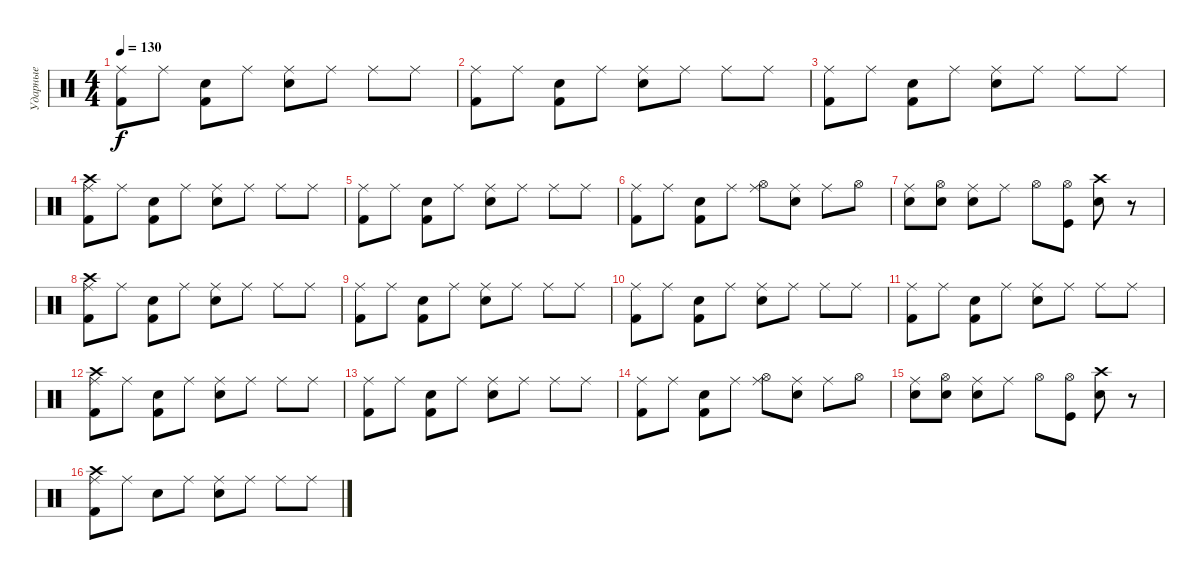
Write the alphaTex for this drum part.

\track ("Ударные" "Ударные") {instrument percussion}
\staff {score}
\articulation defaults
\ts (4 4)
\tempo 130
\clef neutral
\ks c
("Ride (middle)" "Kick (hit) 2").8{dy f} "Ride (middle)".8 ("Snare (hit)" "Kick (hit) 2").8 "Ride (middle)".8 ("Ride (middle)" "Electric Snare (hit)").8 "Ride (middle)".8 "Ride (middle)".8 "Ride (middle)".8 |
("Ride (middle)" "Kick (hit) 2").8 "Ride (middle)".8 ("Snare (hit)" "Kick (hit) 2").8 "Ride (middle)".8 ("Ride (middle)" "Electric Snare (hit)").8 "Ride (middle)".8 "Ride (middle)".8 "Ride (middle)".8 |
("Ride (middle)" "Kick (hit) 2").8 "Ride (middle)".8 ("Snare (hit)" "Kick (hit) 2").8 "Ride (middle)".8 ("Ride (middle)" "Electric Snare (hit)").8 "Ride (middle)".8 "Ride (middle)".8 "Ride (middle)".8 |
("Crash high (hit)" "Ride (middle)" "Kick (hit) 2").8 "Ride (middle)".8 ("Snare (hit)" "Kick (hit) 2").8 "Ride (middle)".8 ("Ride (middle)" "Electric Snare (hit)").8 "Ride (middle)".8 "Ride (middle)".8 "Ride (middle)".8 |
("Ride (middle)" "Kick (hit) 2").8 "Ride (middle)".8 ("Snare (hit)" "Kick (hit) 2").8 "Ride (middle)".8 ("Ride (middle)" "Electric Snare (hit)").8 "Ride (middle)".8 "Ride (middle)".8 "Ride (middle)".8 |
("Ride (middle)" "Kick (hit) 2").8 "Ride (middle)".8 ("Snare (hit)" "Kick (hit) 2").8 "Ride (middle)".8 ("Ride (middle)" "Hi-Hat (open)").8 ("Electric Snare (hit)" "Ride (middle)").8 "Ride (middle)".8 "Hi-Hat (open)".8 |
("Electric Snare (hit)" "Ride (middle)").8 ("Electric Snare (hit)" "Hi-Hat (open)").8 ("Electric Snare (hit)" "Ride (middle)").8 "Ride (middle)".8 "Hi-Hat (open)".8 ("Kick (hit)" "Hi-Hat (open)").8 ("Electric Snare (hit)" "Crash high (hit)").8 r.8 |
("Crash high (hit)" "Ride (middle)" "Kick (hit) 2").8 "Ride (middle)".8 ("Snare (hit)" "Kick (hit) 2").8 "Ride (middle)".8 ("Ride (middle)" "Electric Snare (hit)").8 "Ride (middle)".8 "Ride (middle)".8 "Ride (middle)".8 |
("Ride (middle)" "Kick (hit) 2").8 "Ride (middle)".8 ("Snare (hit)" "Kick (hit) 2").8 "Ride (middle)".8 ("Ride (middle)" "Electric Snare (hit)").8 "Ride (middle)".8 "Ride (middle)".8 "Ride (middle)".8 |
("Ride (middle)" "Kick (hit) 2").8 "Ride (middle)".8 ("Snare (hit)" "Kick (hit) 2").8 "Ride (middle)".8 ("Ride (middle)" "Electric Snare (hit)").8 "Ride (middle)".8 "Ride (middle)".8 "Ride (middle)".8 |
("Ride (middle)" "Kick (hit) 2").8 "Ride (middle)".8 ("Snare (hit)" "Kick (hit) 2").8 "Ride (middle)".8 ("Ride (middle)" "Electric Snare (hit)").8 "Ride (middle)".8 "Ride (middle)".8 "Ride (middle)".8 |
("Crash high (hit)" "Ride (middle)" "Kick (hit) 2").8 "Ride (middle)".8 ("Snare (hit)" "Kick (hit) 2").8 "Ride (middle)".8 ("Ride (middle)" "Electric Snare (hit)").8 "Ride (middle)".8 "Ride (middle)".8 "Ride (middle)".8 |
("Ride (middle)" "Kick (hit) 2").8 "Ride (middle)".8 ("Snare (hit)" "Kick (hit) 2").8 "Ride (middle)".8 ("Ride (middle)" "Electric Snare (hit)").8 "Ride (middle)".8 "Ride (middle)".8 "Ride (middle)".8 |
("Ride (middle)" "Kick (hit) 2").8 "Ride (middle)".8 ("Snare (hit)" "Kick (hit) 2").8 "Ride (middle)".8 ("Ride (middle)" "Hi-Hat (open)").8 ("Electric Snare (hit)" "Ride (middle)").8 "Ride (middle)".8 "Hi-Hat (open)".8 |
("Electric Snare (hit)" "Ride (middle)").8 ("Electric Snare (hit)" "Hi-Hat (open)").8 ("Electric Snare (hit)" "Ride (middle)").8 "Ride (middle)".8 "Hi-Hat (open)".8 ("Kick (hit)" "Hi-Hat (open)").8 ("Electric Snare (hit)" "Crash high (hit)").8 r.8 |
("Crash high (hit)" "Ride (middle)" "Kick (hit) 2").8 "Ride (middle)".8 "Snare (hit)".8 "Ride (middle)".8 ("Ride (middle)" "Electric Snare (hit)").8 "Ride (middle)".8 "Ride (middle)".8 "Ride (middle)".8
